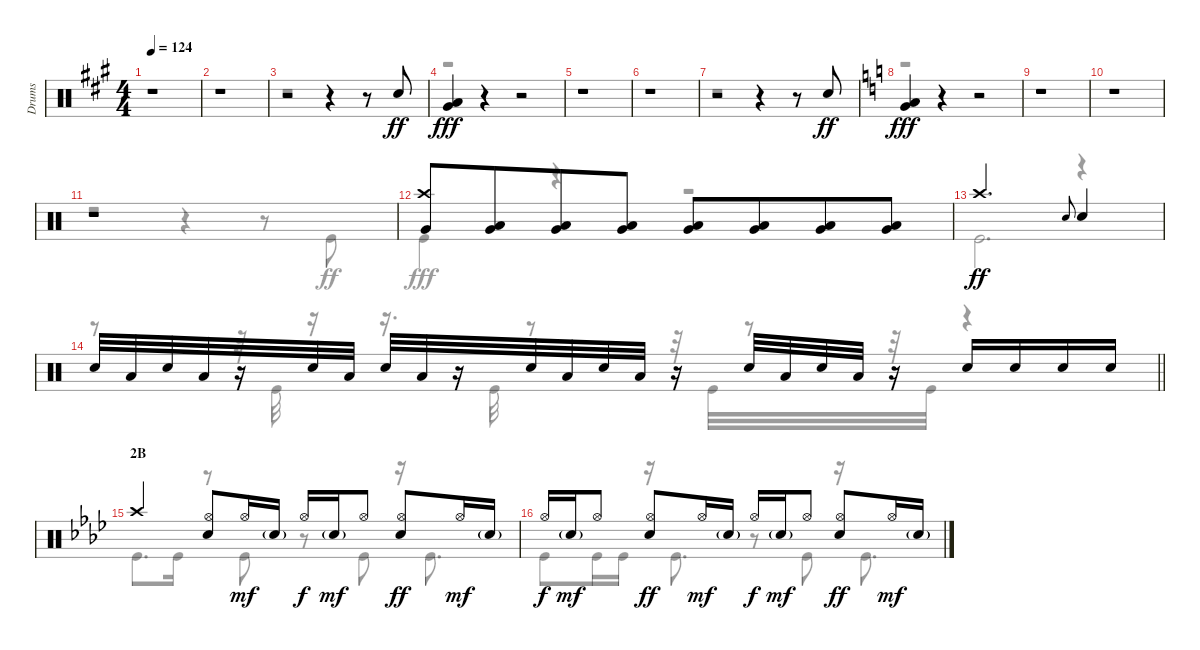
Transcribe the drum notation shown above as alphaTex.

\track ("Drums" "Drums") {solo instrument percussion}
\staff {score}
\articulation defaults
\voice
\ts (4 4)
\tempo 124
\clef neutral
\ks a
r.1{dy fff} |
r.1 |
r.2 r.4 r.8 "Electric Snare (hit)".8{dy ff} |
("Low Tom (hit)" "Very Low Tom (hit)").4{dy fff} r.4 r.2 |
r.1 |
r.1 |
r.2 r.4 r.8 "Electric Snare (hit)".8{dy ff} |
\ks c
("Low Tom (hit)" "Very Low Tom (hit)").4{dy fff} r.4 r.2 |
r.1 |
r.1 |
r.1 |
("Crash high (hit)" "Very Low Tom (hit)").8 ("Very Low Tom (hit)" "Low Tom (hit)").8{beam merge} ("Very Low Tom (hit)" "Low Tom (hit)").8 ("Very Low Tom (hit)" "Low Tom (hit)").8 ("Very Low Tom (hit)" "Low Tom (hit)").8 ("Very Low Tom (hit)" "Low Tom (hit)").8{beam merge} ("Very Low Tom (hit)" "Low Tom (hit)").8 ("Very Low Tom (hit)" "Low Tom (hit)").8 |
"Crash high (hit)".2{d dy ff} "Electric Snare (hit)".8{gr onbeat} "Electric Snare (hit)".4 |
\barLineRight lightlight "Electric Snare (hit)".32 "Low Tom (hit)".32 "Electric Snare (hit)".32 "Low Tom (hit)".32
r.16 "Electric Snare (hit)".32 "Low Tom (hit)".32 "Electric Snare (hit)".32 "Low Tom (hit)".32 r.16 "Electric Snare (hit)".32 "Low Tom (hit)".32 "Electric Snare (hit)".32 "Low Tom (hit)".32 r.16 "Electric Snare (hit)".32 "Low Tom (hit)".32 "Electric Snare (hit)".32 "Low Tom (hit)".32 r.16 "Electric Snare (hit)".16 "Electric Snare (hit)".16 "Electric Snare (hit)".16 "Electric Snare (hit)".16 |
\section ("" "2B")
\ks ab "Crash high (hit)".4
("Hi-Hat (open)" "Electric Snare (hit)").8 "Hi-Hat (open)".16{dy mf} "Electric Snare (hit)"{g}.16 "Hi-Hat (open)".16{dy f} "Electric Snare (hit)"{g}.16{dy mf} "Hi-Hat (open)".8 ("Hi-Hat (open)" "Electric Snare (hit)").8{dy ff} "Hi-Hat (open)".16{dy mf} "Electric Snare (hit)"{g}.16 |
"Hi-Hat (open)".16{dy f} "Electric Snare (hit)"{g}.16{dy mf} "Hi-Hat (open)".8 ("Hi-Hat (open)" "Electric Snare (hit)").8{dy ff} "Hi-Hat (open)".16{dy mf} "Electric Snare (hit)"{g}.16 "Hi-Hat (open)".16{dy f} "Electric Snare (hit)"{g}.16{dy mf} "Hi-Hat (open)".8 ("Hi-Hat (open)" "Electric Snare (hit)").8{dy ff} "Hi-Hat (open)".16{dy mf} "Electric Snare (hit)"{g}.16
\voice
\clef neutral
\ottava regular
\simile none
\ks a
|
|
r.1 |
r.1 |
|
|
r.1 |
\ks c
r.1 |
|
|
r.2 r.4 r.8 "Kick (hit)".8{dy ff} |
"Kick (hit)".4{dy fff} r.4 r.2 |
"Kick (hit)".2{d dy ff} r.4 |
\barLineRight lightlight
r.8 r.32 "Kick (hit)".32 r.16 r.16{d} "Kick (hit)".32 r.8 r.32 "Kick (hit)".32 r.8 r.32 "Kick (hit)".32 r.4 |
\ks ab "Kick (hit)".8{d} "Kick (hit)".16
r.8 "Kick (hit)".8 r.8 "Kick (hit)".8 r.16 "Kick (hit)".8{d} |
"Kick (hit)".8 "Kick (hit)".16 "Kick (hit)".16 r.16 "Kick (hit)".8{d} r.8 "Kick (hit)".8 r.16 "Kick (hit)".8{d}
